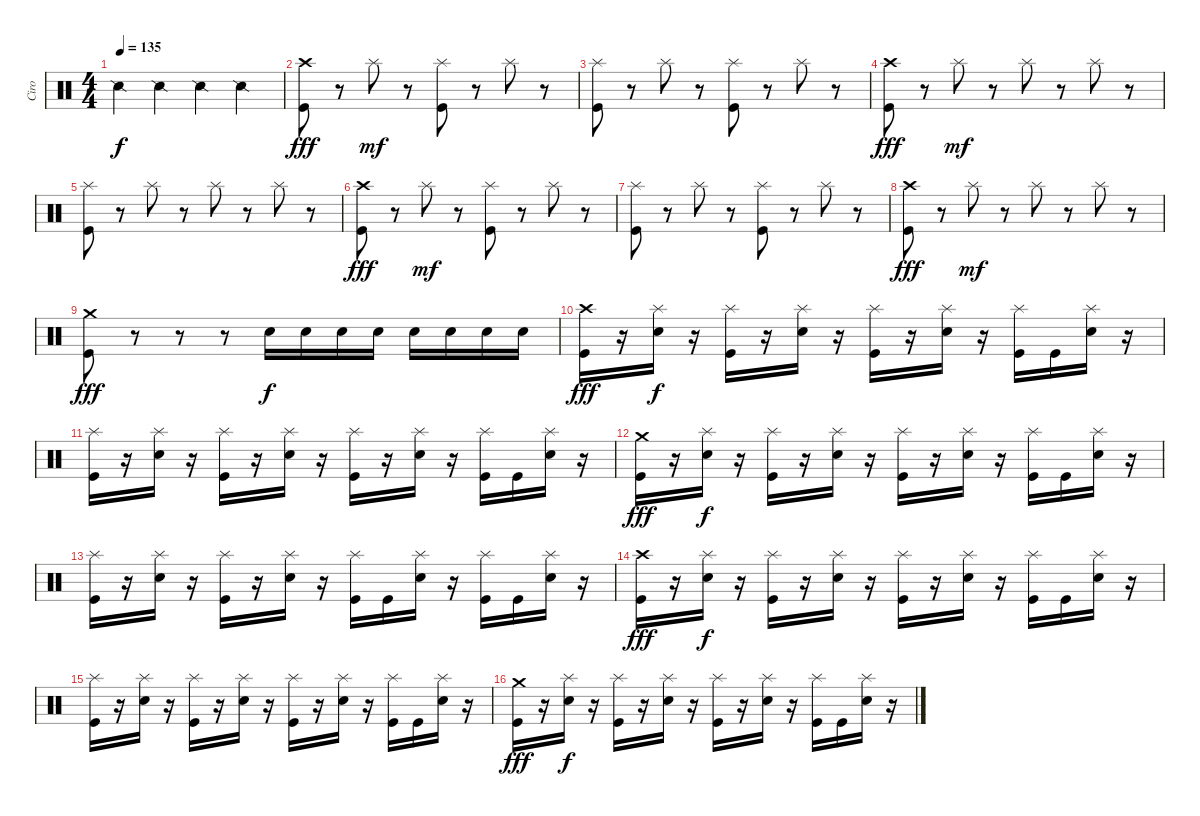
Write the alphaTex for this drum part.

\track ("Ciro" "Ciro") {instrument percussion}
\staff {score}
\articulation defaults
\ts (4 4)
\tempo 135
\clef neutral
\ks c "Snare (side stick) 2".4{dy f} "Snare (side stick) 2".4 "Snare (side stick) 2".4 "Snare (side stick) 2".4
|
("Crash high (hit)" "Kick (hit)").8{dy fff} r.8 "Splash (hit)".8{dy mf} r.8 ("Splash (hit)" "Kick (hit)").8 r.8 "Splash (hit)".8 r.8 |
("Splash (hit)" "Kick (hit)").8 r.8 "Splash (hit)".8 r.8 ("Splash (hit)" "Kick (hit)").8 r.8 "Splash (hit)".8 r.8 |
("Crash high (hit)" "Kick (hit)").8{dy fff} r.8 "Splash (hit)".8{dy mf} r.8 "Splash (hit)".8 r.8 "Splash (hit)".8 r.8 |
("Splash (hit)" "Kick (hit)").8 r.8 "Splash (hit)".8 r.8 "Splash (hit)".8 r.8 "Splash (hit)".8 r.8 |
("Crash high (hit)" "Kick (hit)").8{dy fff} r.8 "Splash (hit)".8{dy mf} r.8 ("Splash (hit)" "Kick (hit)").8 r.8 "Splash (hit)".8 r.8 |
("Splash (hit)" "Kick (hit)").8 r.8 "Splash (hit)".8 r.8 ("Splash (hit)" "Kick (hit)").8 r.8 "Splash (hit)".8 r.8 |
("Crash high (hit)" "Kick (hit)").8{dy fff} r.8 "Splash (hit)".8{dy mf} r.8 "Splash (hit)".8 r.8 "Splash (hit)".8 r.8 |
("Crash medium (hit)" "Kick (hit)").8{dy fff} r.8 r.8 r.8 "Electric Snare (hit)".16{dy f} "Electric Snare (hit)".16 "Electric Snare (hit)".16 "Electric Snare (hit)".16 "Electric Snare (hit)".16 "Electric Snare (hit)".16 "Electric Snare (hit)".16 "Electric Snare (hit)".16 |
("Crash high (hit)" "Kick (hit)").16{dy fff} r.16 ("Splash (hit)" "Electric Snare (hit)").16{dy f} r.16 ("Splash (hit)" "Kick (hit)").16 r.16 ("Splash (hit)" "Electric Snare (hit)").16 r.16 ("Splash (hit)" "Kick (hit)").16 r.16 ("Splash (hit)" "Electric Snare (hit)").16 r.16 ("Splash (hit)" "Kick (hit)").16 "Kick (hit)".16 ("Splash (hit)" "Electric Snare (hit)").16 r.16 |
("Splash (hit)" "Kick (hit)").16 r.16 ("Splash (hit)" "Electric Snare (hit)").16 r.16 ("Splash (hit)" "Kick (hit)").16 r.16 ("Splash (hit)" "Electric Snare (hit)").16 r.16 ("Splash (hit)" "Kick (hit)").16 r.16 ("Splash (hit)" "Electric Snare (hit)").16 r.16 ("Splash (hit)" "Kick (hit)").16 "Kick (hit)".16 ("Splash (hit)" "Electric Snare (hit)").16 r.16 |
("Crash medium (hit)" "Kick (hit)").16{dy fff} r.16 ("Splash (hit)" "Electric Snare (hit)").16{dy f} r.16 ("Splash (hit)" "Kick (hit)").16 r.16 ("Splash (hit)" "Electric Snare (hit)").16 r.16 ("Splash (hit)" "Kick (hit)").16 r.16 ("Splash (hit)" "Electric Snare (hit)").16 r.16 ("Splash (hit)" "Kick (hit)").16 "Kick (hit)".16 ("Splash (hit)" "Electric Snare (hit)").16 r.16 |
("Splash (hit)" "Kick (hit)").16 r.16 ("Splash (hit)" "Electric Snare (hit)").16 r.16 ("Splash (hit)" "Kick (hit)").16 r.16 ("Splash (hit)" "Electric Snare (hit)").16 r.16 ("Splash (hit)" "Kick (hit)").16 "Kick (hit)".16 ("Splash (hit)" "Electric Snare (hit)").16 r.16 ("Splash (hit)" "Kick (hit)").16 "Kick (hit)".16 ("Splash (hit)" "Electric Snare (hit)").16 r.16 |
("Crash high (hit)" "Kick (hit)").16{dy fff} r.16 ("Splash (hit)" "Electric Snare (hit)").16{dy f} r.16 ("Splash (hit)" "Kick (hit)").16 r.16 ("Splash (hit)" "Electric Snare (hit)").16 r.16 ("Splash (hit)" "Kick (hit)").16 r.16 ("Splash (hit)" "Electric Snare (hit)").16 r.16 ("Splash (hit)" "Kick (hit)").16 "Kick (hit)".16 ("Splash (hit)" "Electric Snare (hit)").16 r.16 |
("Splash (hit)" "Kick (hit)").16 r.16 ("Splash (hit)" "Electric Snare (hit)").16 r.16 ("Splash (hit)" "Kick (hit)").16 r.16 ("Splash (hit)" "Electric Snare (hit)").16 r.16 ("Splash (hit)" "Kick (hit)").16 r.16 ("Splash (hit)" "Electric Snare (hit)").16 r.16 ("Splash (hit)" "Kick (hit)").16 "Kick (hit)".16 ("Splash (hit)" "Electric Snare (hit)").16 r.16 |
("Crash medium (hit)" "Kick (hit)").16{dy fff} r.16 ("Splash (hit)" "Electric Snare (hit)").16{dy f} r.16 ("Splash (hit)" "Kick (hit)").16 r.16 ("Splash (hit)" "Electric Snare (hit)").16 r.16 ("Splash (hit)" "Kick (hit)").16 r.16 ("Splash (hit)" "Electric Snare (hit)").16 r.16 ("Splash (hit)" "Kick (hit)").16 "Kick (hit)".16 ("Splash (hit)" "Electric Snare (hit)").16 r.16
